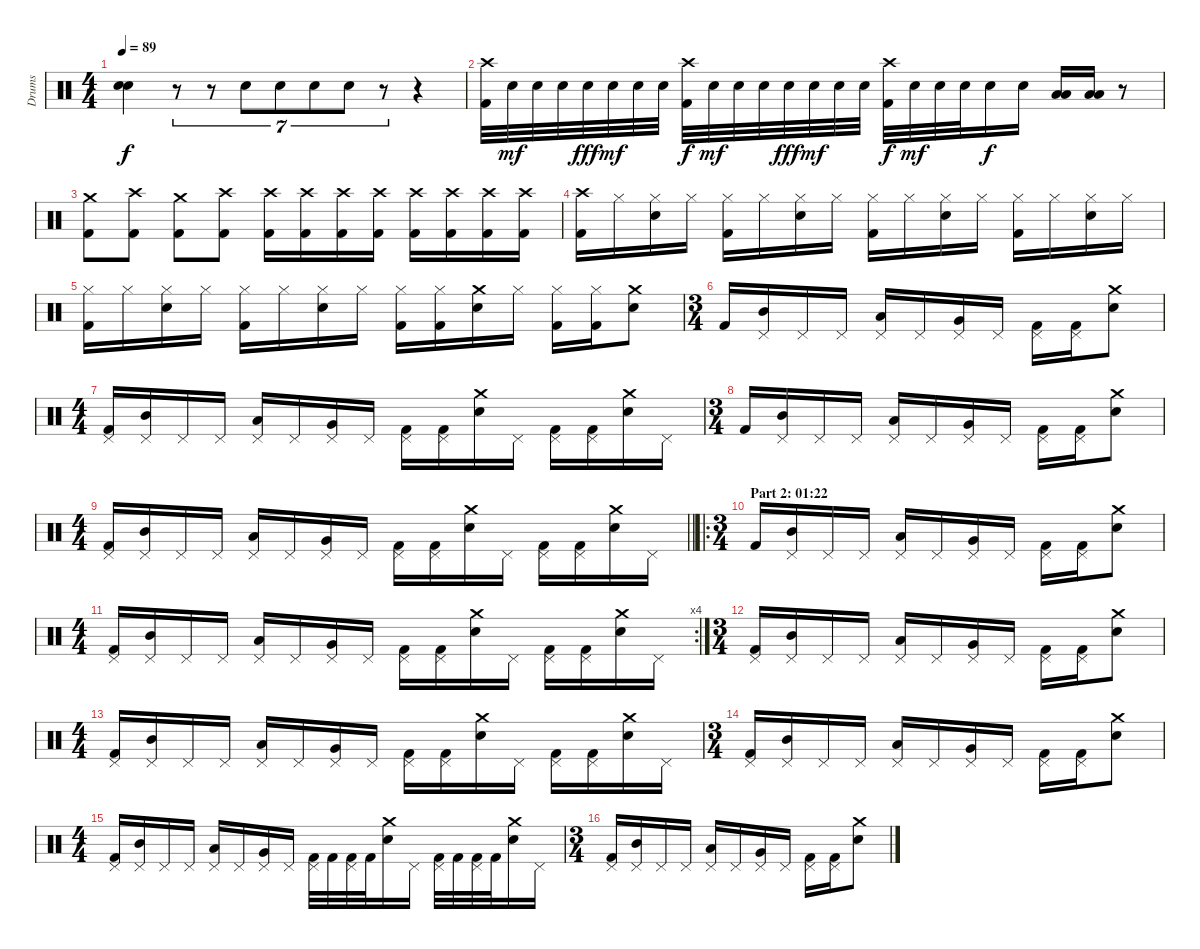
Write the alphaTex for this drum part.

\track ("Drums" "Drums") {instrument percussion}
\staff {score}
\articulation defaults
\ts (4 4)
\tempo 89
\clef neutral
\ks c
("Electric Snare (hit)" "Electric Snare (hit)").4{dy f} r.8{tu (7 4)} r.8{tu (7 4)} "Electric Snare (hit)".8{tu (7 4)} "Electric Snare (hit)".8{tu (7 4)} "Electric Snare (hit)".8{tu (7 4)} "Electric Snare (hit)".8{tu (7 4)} r.8{tu (7 4)} r.4 |
("Crash high (hit)" "Kick (hit) 2").32 "Electric Snare (hit)".32{dy mf} "Electric Snare (hit)".32 "Electric Snare (hit)".32 "Electric Snare (hit)".32{dy fff} "Electric Snare (hit)".32{dy mf} "Electric Snare (hit)".32 "Electric Snare (hit)".32 ("Crash high (hit)" "Kick (hit) 2").32{dy f} "Electric Snare (hit)".32{dy mf} "Electric Snare (hit)".32 "Electric Snare (hit)".32 "Electric Snare (hit)".32{dy fff} "Electric Snare (hit)".32{dy mf} "Electric Snare (hit)".32 "Electric Snare (hit)".32 ("Crash high (hit)" "Kick (hit) 2").32{dy f} "Electric Snare (hit)".32{dy mf} "Electric Snare (hit)".32 "Electric Snare (hit)".32 "Electric Snare (hit)".16{dy f} "Electric Snare (hit)".16 ("Low Tom (hit)" "Low Floor Tom (hit)").16 ("Low Tom (hit)" "Low Floor Tom (hit)").16 r.8 |
("Crash medium (hit)" "Kick (hit) 2").8 ("Crash high (hit)" "Kick (hit) 2").8 ("Crash medium (hit)" "Kick (hit) 2").8 ("Crash high (hit)" "Kick (hit) 2").8 ("Crash high (hit)" "Kick (hit) 2").16 ("Crash high (hit)" "Kick (hit) 2").16 ("Crash high (hit)" "Kick (hit) 2").16 ("Crash high (hit)" "Kick (hit) 2").16 ("Crash high (hit)" "Kick (hit) 2").16 ("Crash high (hit)" "Kick (hit) 2").16 ("Crash high (hit)" "Kick (hit) 2").16 ("Crash high (hit)" "Kick (hit) 2").16 |
("Crash high (hit)" "Kick (hit) 2").16 "Hi-Hat (closed)".16 ("Hi-Hat (closed)" "Electric Snare (hit)").16 "Hi-Hat (closed)".16 ("Hi-Hat (closed)" "Kick (hit) 2").16 "Hi-Hat (closed)".16 ("Hi-Hat (closed)" "Electric Snare (hit)").16 "Hi-Hat (closed)".16 ("Hi-Hat (closed)" "Kick (hit) 2").16 "Hi-Hat (closed)".16 ("Hi-Hat (closed)" "Electric Snare (hit)").16 "Hi-Hat (closed)".16 ("Hi-Hat (closed)" "Kick (hit) 2").16 "Hi-Hat (closed)".16 ("Hi-Hat (closed)" "Electric Snare (hit)").16 "Hi-Hat (closed)".16 |
("Hi-Hat (closed)" "Kick (hit) 2").16 "Hi-Hat (closed)".16 ("Hi-Hat (closed)" "Electric Snare (hit)").16 "Hi-Hat (closed)".16 ("Hi-Hat (closed)" "Kick (hit) 2").16 "Hi-Hat (closed)".16 ("Hi-Hat (closed)" "Electric Snare (hit)").16 "Hi-Hat (closed)".16 ("Hi-Hat (closed)" "Kick (hit) 2").16 ("Hi-Hat (closed)" "Kick (hit) 2").16 ("Crash medium (hit)" "Electric Snare (hit)").16 "Hi-Hat (closed)".16 ("Hi-Hat (closed)" "Kick (hit) 2").16 ("Hi-Hat (closed)" "Kick (hit) 2").16 ("Crash medium (hit)" "Electric Snare (hit)").8 |
\ts (3 4)
"Kick (hit) 2".16 ("Pedal Hi-Hat (hit)" "Mid Tom (hit)").16 "Pedal Hi-Hat (hit)".16 "Pedal Hi-Hat (hit)".16 ("Pedal Hi-Hat (hit)" "Low Tom (hit)").16 "Pedal Hi-Hat (hit)".16 ("Pedal Hi-Hat (hit)" "Very Low Tom (hit)").16 "Pedal Hi-Hat (hit)".16 ("Pedal Hi-Hat (hit)" "Kick (hit) 2").16 ("Pedal Hi-Hat (hit)" "Kick (hit) 2").16 ("Crash medium (hit)" "Electric Snare (hit)").8 |
\ts (4 4)
("Pedal Hi-Hat (hit)" "Kick (hit) 2").16 ("Pedal Hi-Hat (hit)" "Mid Tom (hit)").16 "Pedal Hi-Hat (hit)".16 "Pedal Hi-Hat (hit)".16 ("Pedal Hi-Hat (hit)" "Low Tom (hit)").16 "Pedal Hi-Hat (hit)".16 ("Pedal Hi-Hat (hit)" "Very Low Tom (hit)").16 "Pedal Hi-Hat (hit)".16 ("Pedal Hi-Hat (hit)" "Kick (hit) 2").16 ("Pedal Hi-Hat (hit)" "Kick (hit) 2").16 ("Crash medium (hit)" "Electric Snare (hit)").16 "Pedal Hi-Hat (hit)".16 ("Pedal Hi-Hat (hit)" "Kick (hit) 2").16 ("Pedal Hi-Hat (hit)" "Kick (hit) 2").16 ("Crash medium (hit)" "Electric Snare (hit)").16 "Pedal Hi-Hat (hit)".16 |
\ts (3 4)
"Kick (hit) 2".16 ("Pedal Hi-Hat (hit)" "Mid Tom (hit)").16 "Pedal Hi-Hat (hit)".16 "Pedal Hi-Hat (hit)".16 ("Pedal Hi-Hat (hit)" "Low Tom (hit)").16 "Pedal Hi-Hat (hit)".16 ("Pedal Hi-Hat (hit)" "Very Low Tom (hit)").16 "Pedal Hi-Hat (hit)".16 ("Pedal Hi-Hat (hit)" "Kick (hit) 2").16 ("Pedal Hi-Hat (hit)" "Kick (hit) 2").16 ("Crash medium (hit)" "Electric Snare (hit)").8 |
\ts (4 4)
\barLineRight lightlight
("Pedal Hi-Hat (hit)" "Kick (hit) 2").16 ("Pedal Hi-Hat (hit)" "Mid Tom (hit)").16 "Pedal Hi-Hat (hit)".16 "Pedal Hi-Hat (hit)".16 ("Pedal Hi-Hat (hit)" "Low Tom (hit)").16 "Pedal Hi-Hat (hit)".16 ("Pedal Hi-Hat (hit)" "Very Low Tom (hit)").16 "Pedal Hi-Hat (hit)".16 ("Pedal Hi-Hat (hit)" "Kick (hit) 2").16 ("Pedal Hi-Hat (hit)" "Kick (hit) 2").16 ("Crash medium (hit)" "Electric Snare (hit)").16 "Pedal Hi-Hat (hit)".16 ("Pedal Hi-Hat (hit)" "Kick (hit) 2").16 ("Pedal Hi-Hat (hit)" "Kick (hit) 2").16 ("Crash medium (hit)" "Electric Snare (hit)").16 "Pedal Hi-Hat (hit)".16 |
\ro
\ts (3 4)
\section ("" "Part 2: 01:22")
"Kick (hit) 2".16 ("Pedal Hi-Hat (hit)" "Mid Tom (hit)").16 "Pedal Hi-Hat (hit)".16 "Pedal Hi-Hat (hit)".16 ("Pedal Hi-Hat (hit)" "Low Tom (hit)").16 "Pedal Hi-Hat (hit)".16 ("Pedal Hi-Hat (hit)" "Very Low Tom (hit)").16 "Pedal Hi-Hat (hit)".16 ("Pedal Hi-Hat (hit)" "Kick (hit) 2").16 ("Pedal Hi-Hat (hit)" "Kick (hit) 2").16 ("Crash medium (hit)" "Electric Snare (hit)").8 |
\rc 4
\ts (4 4)
("Pedal Hi-Hat (hit)" "Kick (hit) 2").16 ("Pedal Hi-Hat (hit)" "Mid Tom (hit)").16 "Pedal Hi-Hat (hit)".16 "Pedal Hi-Hat (hit)".16 ("Pedal Hi-Hat (hit)" "Low Tom (hit)").16 "Pedal Hi-Hat (hit)".16 ("Pedal Hi-Hat (hit)" "Very Low Tom (hit)").16 "Pedal Hi-Hat (hit)".16 ("Pedal Hi-Hat (hit)" "Kick (hit) 2").16 ("Pedal Hi-Hat (hit)" "Kick (hit) 2").16 ("Crash medium (hit)" "Electric Snare (hit)").16 "Pedal Hi-Hat (hit)".16 ("Pedal Hi-Hat (hit)" "Kick (hit) 2").16 ("Pedal Hi-Hat (hit)" "Kick (hit) 2").16 ("Crash medium (hit)" "Electric Snare (hit)").16 "Pedal Hi-Hat (hit)".16 |
\ts (3 4)
("Pedal Hi-Hat (hit)" "Kick (hit) 2").16 ("Pedal Hi-Hat (hit)" "Mid Tom (hit)").16 "Pedal Hi-Hat (hit)".16 "Pedal Hi-Hat (hit)".16 ("Pedal Hi-Hat (hit)" "Low Tom (hit)").16 "Pedal Hi-Hat (hit)".16 ("Pedal Hi-Hat (hit)" "Very Low Tom (hit)").16 "Pedal Hi-Hat (hit)".16 ("Pedal Hi-Hat (hit)" "Kick (hit) 2").16 ("Pedal Hi-Hat (hit)" "Kick (hit) 2").16 ("Crash medium (hit)" "Electric Snare (hit)").8 |
\ts (4 4)
("Pedal Hi-Hat (hit)" "Kick (hit) 2").16 ("Pedal Hi-Hat (hit)" "Mid Tom (hit)").16 "Pedal Hi-Hat (hit)".16 "Pedal Hi-Hat (hit)".16 ("Pedal Hi-Hat (hit)" "Low Tom (hit)").16 "Pedal Hi-Hat (hit)".16 ("Pedal Hi-Hat (hit)" "Very Low Tom (hit)").16 "Pedal Hi-Hat (hit)".16 ("Pedal Hi-Hat (hit)" "Kick (hit) 2").16 ("Pedal Hi-Hat (hit)" "Kick (hit) 2").16 ("Crash medium (hit)" "Electric Snare (hit)").16 "Pedal Hi-Hat (hit)".16 ("Pedal Hi-Hat (hit)" "Kick (hit) 2").16 ("Pedal Hi-Hat (hit)" "Kick (hit) 2").16 ("Crash medium (hit)" "Electric Snare (hit)").16 "Pedal Hi-Hat (hit)".16 |
\ts (3 4)
("Pedal Hi-Hat (hit)" "Kick (hit) 2").16 ("Pedal Hi-Hat (hit)" "Mid Tom (hit)").16 "Pedal Hi-Hat (hit)".16 "Pedal Hi-Hat (hit)".16 ("Pedal Hi-Hat (hit)" "Low Tom (hit)").16 "Pedal Hi-Hat (hit)".16 ("Pedal Hi-Hat (hit)" "Very Low Tom (hit)").16 "Pedal Hi-Hat (hit)".16 ("Pedal Hi-Hat (hit)" "Kick (hit) 2").16 ("Pedal Hi-Hat (hit)" "Kick (hit) 2").16 ("Crash medium (hit)" "Electric Snare (hit)").8 |
\ts (4 4)
("Pedal Hi-Hat (hit)" "Kick (hit) 2").16 ("Pedal Hi-Hat (hit)" "Mid Tom (hit)").16 "Pedal Hi-Hat (hit)".16 "Pedal Hi-Hat (hit)".16 ("Pedal Hi-Hat (hit)" "Low Tom (hit)").16 "Pedal Hi-Hat (hit)".16 ("Pedal Hi-Hat (hit)" "Very Low Tom (hit)").16 "Pedal Hi-Hat (hit)".16 ("Pedal Hi-Hat (hit)" "Kick (hit) 2").32 "Kick (hit) 2".32 ("Pedal Hi-Hat (hit)" "Kick (hit) 2").32 "Kick (hit) 2".32 ("Crash medium (hit)" "Electric Snare (hit)").16 "Pedal Hi-Hat (hit)".16 ("Pedal Hi-Hat (hit)" "Kick (hit) 2").32 "Kick (hit) 2".32 ("Pedal Hi-Hat (hit)" "Kick (hit) 2").32 "Kick (hit) 2".32 ("Crash medium (hit)" "Electric Snare (hit)").16 "Pedal Hi-Hat (hit)".16 |
\ts (3 4)
("Pedal Hi-Hat (hit)" "Kick (hit) 2").16 ("Pedal Hi-Hat (hit)" "Mid Tom (hit)").16 "Pedal Hi-Hat (hit)".16 "Pedal Hi-Hat (hit)".16 ("Pedal Hi-Hat (hit)" "Low Tom (hit)").16 "Pedal Hi-Hat (hit)".16 ("Pedal Hi-Hat (hit)" "Very Low Tom (hit)").16 "Pedal Hi-Hat (hit)".16 ("Pedal Hi-Hat (hit)" "Kick (hit) 2").16 ("Pedal Hi-Hat (hit)" "Kick (hit) 2").16 ("Crash medium (hit)" "Electric Snare (hit)").8
